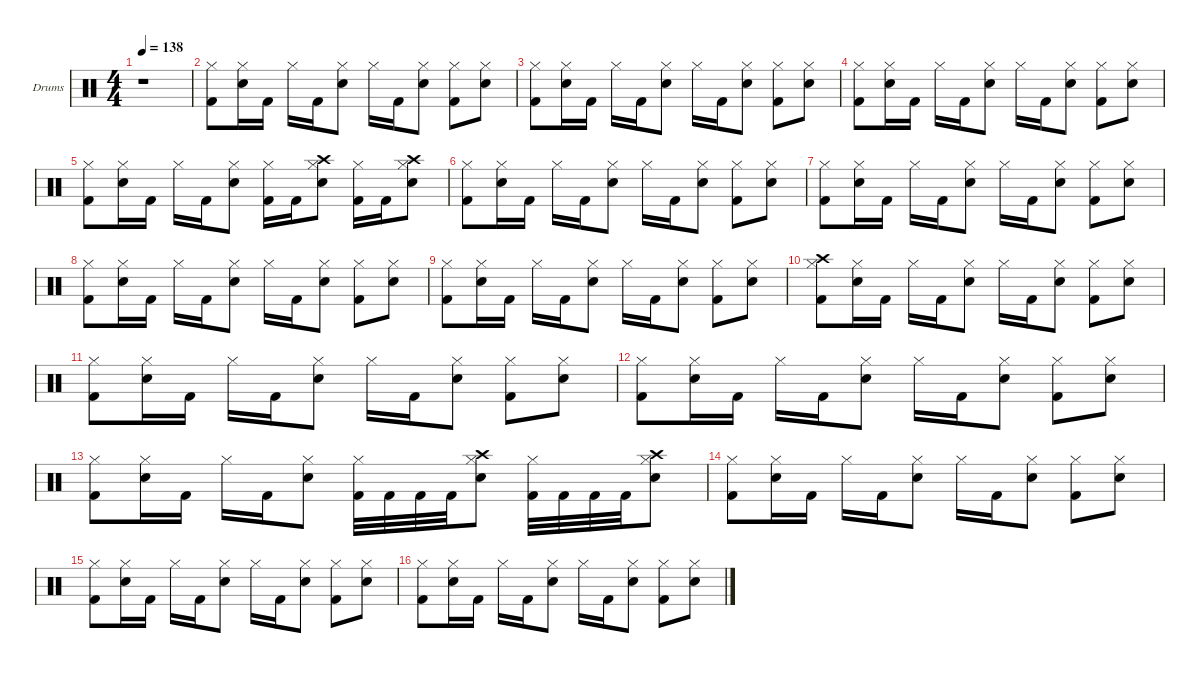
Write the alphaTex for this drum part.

\hideDynamics
\bracketExtendMode nobrackets
\firstSystemTrackNameOrientation horizontal
\otherSystemsTrackNameOrientation horizontal
\track ("Drumkit" "Drums") {instrument percussion}
\staff {score}
\articulation defaults
\ts (4 4)
\beaming (8 2 2 2 2)
\tempo 138
\clef neutral
\ks c
r.1{dy f beam Down} |
("Hi-Hat (closed)" "Kick (hit) 2").8{beam Down} ("Snare (hit) 2" "Hi-Hat (closed)").16{beam Down} "Kick (hit) 2".16{beam Down} "Hi-Hat (closed)".16{beam Down} "Kick (hit) 2".16{beam Down} ("Snare (hit) 2" "Hi-Hat (closed)").8{beam Down} "Hi-Hat (closed)".16{beam Down} "Kick (hit) 2".16{beam Down} ("Snare (hit) 2" "Hi-Hat (closed)").8{beam Down} ("Hi-Hat (closed)" "Kick (hit) 2").8{beam Down} ("Snare (hit) 2" "Hi-Hat (closed)").8{beam Down} |
("Hi-Hat (closed)" "Kick (hit) 2").8{beam Down} ("Snare (hit) 2" "Hi-Hat (closed)").16{beam Down} "Kick (hit) 2".16{beam Down} "Hi-Hat (closed)".16{beam Down} "Kick (hit) 2".16{beam Down} ("Snare (hit) 2" "Hi-Hat (closed)").8{beam Down} "Hi-Hat (closed)".16{beam Down} "Kick (hit) 2".16{beam Down} ("Snare (hit) 2" "Hi-Hat (closed)").8{beam Down} ("Hi-Hat (closed)" "Kick (hit) 2").8{beam Down} ("Snare (hit) 2" "Hi-Hat (closed)").8{beam Down} |
("Hi-Hat (closed)" "Kick (hit) 2").8{beam Down} ("Snare (hit) 2" "Hi-Hat (closed)").16{beam Down} "Kick (hit) 2".16{beam Down} "Hi-Hat (closed)".16{beam Down} "Kick (hit) 2".16{beam Down} ("Snare (hit) 2" "Hi-Hat (closed)").8{beam Down} "Hi-Hat (closed)".16{beam Down} "Kick (hit) 2".16{beam Down} ("Snare (hit) 2" "Hi-Hat (closed)").8{beam Down} ("Hi-Hat (closed)" "Kick (hit) 2").8{beam Down} ("Snare (hit) 2" "Hi-Hat (closed)").8{beam Down} |
("Hi-Hat (closed)" "Kick (hit) 2").8{beam Down} ("Snare (hit) 2" "Hi-Hat (closed)").16{beam Down} "Kick (hit) 2".16{beam Down} "Hi-Hat (closed)".16{beam Down} "Kick (hit) 2".16{beam Down} ("Snare (hit) 2" "Hi-Hat (closed)").8{beam Down} ("Hi-Hat (closed)" "Kick (hit) 2").16{beam Down} "Kick (hit) 2".16{beam Down} ("Crash high (hit)" "Snare (hit) 2" "Hi-Hat (closed)").8{beam Down} ("Hi-Hat (closed)" "Kick (hit) 2").16{beam Down} "Kick (hit) 2".16{beam Down} ("Crash high (hit)" "Snare (hit) 2" "Hi-Hat (closed)").8{beam Down} |
("Hi-Hat (closed)" "Kick (hit) 2").8{beam Down} ("Snare (hit) 2" "Hi-Hat (closed)").16{beam Down} "Kick (hit) 2".16{beam Down} "Hi-Hat (closed)".16{beam Down} "Kick (hit) 2".16{beam Down} ("Snare (hit) 2" "Hi-Hat (closed)").8{beam Down} "Hi-Hat (closed)".16{beam Down} "Kick (hit) 2".16{beam Down} ("Snare (hit) 2" "Hi-Hat (closed)").8{beam Down} ("Hi-Hat (closed)" "Kick (hit) 2").8{beam Down} ("Snare (hit) 2" "Hi-Hat (closed)").8{beam Down} |
("Hi-Hat (closed)" "Kick (hit) 2").8{beam Down} ("Snare (hit) 2" "Hi-Hat (closed)").16{beam Down} "Kick (hit) 2".16{beam Down} "Hi-Hat (closed)".16{beam Down} "Kick (hit) 2".16{beam Down} ("Snare (hit) 2" "Hi-Hat (closed)").8{beam Down} "Hi-Hat (closed)".16{beam Down} "Kick (hit) 2".16{beam Down} ("Snare (hit) 2" "Hi-Hat (closed)").8{beam Down} ("Hi-Hat (closed)" "Kick (hit) 2").8{beam Down} ("Snare (hit) 2" "Hi-Hat (closed)").8{beam Down} |
("Hi-Hat (closed)" "Kick (hit) 2").8{beam Down} ("Snare (hit) 2" "Hi-Hat (closed)").16{beam Down} "Kick (hit) 2".16{beam Down} "Hi-Hat (closed)".16{beam Down} "Kick (hit) 2".16{beam Down} ("Snare (hit) 2" "Hi-Hat (closed)").8{beam Down} "Hi-Hat (closed)".16{beam Down} "Kick (hit) 2".16{beam Down} ("Snare (hit) 2" "Hi-Hat (closed)").8{beam Down} ("Hi-Hat (closed)" "Kick (hit) 2").8{beam Down} ("Snare (hit) 2" "Hi-Hat (closed)").8{beam Down} |
("Hi-Hat (closed)" "Kick (hit) 2").8{beam Down} ("Snare (hit) 2" "Hi-Hat (closed)").16{beam Down} "Kick (hit) 2".16{beam Down} "Hi-Hat (closed)".16{beam Down} "Kick (hit) 2".16{beam Down} ("Snare (hit) 2" "Hi-Hat (closed)").8{beam Down} "Hi-Hat (closed)".16{beam Down} "Kick (hit) 2".16{beam Down} ("Snare (hit) 2" "Hi-Hat (closed)").8{beam Down} ("Hi-Hat (closed)" "Kick (hit) 2").8{beam Down} ("Snare (hit) 2" "Hi-Hat (closed)").8{beam Down} |
("Crash high (hit)" "Hi-Hat (closed)" "Kick (hit) 2").8{beam Down} ("Snare (hit) 2" "Hi-Hat (closed)").16{beam Down} "Kick (hit) 2".16{beam Down} "Hi-Hat (closed)".16{beam Down} "Kick (hit) 2".16{beam Down} ("Snare (hit) 2" "Hi-Hat (closed)").8{beam Down} "Hi-Hat (closed)".16{beam Down} "Kick (hit) 2".16{beam Down} ("Snare (hit) 2" "Hi-Hat (closed)").8{beam Down} ("Hi-Hat (closed)" "Kick (hit) 2").8{beam Down} ("Snare (hit) 2" "Hi-Hat (closed)").8{beam Down} |
("Hi-Hat (closed)" "Kick (hit) 2").8{beam Down} ("Snare (hit) 2" "Hi-Hat (closed)").16{beam Down} "Kick (hit) 2".16{beam Down} "Hi-Hat (closed)".16{beam Down} "Kick (hit) 2".16{beam Down} ("Snare (hit) 2" "Hi-Hat (closed)").8{beam Down} "Hi-Hat (closed)".16{beam Down} "Kick (hit) 2".16{beam Down} ("Snare (hit) 2" "Hi-Hat (closed)").8{beam Down} ("Hi-Hat (closed)" "Kick (hit) 2").8{beam Down} ("Snare (hit) 2" "Hi-Hat (closed)").8{beam Down} |
("Hi-Hat (closed)" "Kick (hit) 2").8{beam Down} ("Snare (hit) 2" "Hi-Hat (closed)").16{beam Down} "Kick (hit) 2".16{beam Down} "Hi-Hat (closed)".16{beam Down} "Kick (hit) 2".16{beam Down} ("Snare (hit) 2" "Hi-Hat (closed)").8{beam Down} "Hi-Hat (closed)".16{beam Down} "Kick (hit) 2".16{beam Down} ("Snare (hit) 2" "Hi-Hat (closed)").8{beam Down} ("Hi-Hat (closed)" "Kick (hit) 2").8{beam Down} ("Snare (hit) 2" "Hi-Hat (closed)").8{beam Down} |
("Hi-Hat (closed)" "Kick (hit) 2").8{beam Down} ("Snare (hit) 2" "Hi-Hat (closed)").16{beam Down} "Kick (hit) 2".16{beam Down} "Hi-Hat (closed)".16{beam Down} "Kick (hit) 2".16{beam Down} ("Snare (hit) 2" "Hi-Hat (closed)").8{beam Down} ("Hi-Hat (closed)" "Kick (hit) 2").32{beam Down} "Kick (hit) 2".32{beam Down} "Kick (hit) 2".32{beam Down} "Kick (hit) 2".32{beam Down} ("Crash high (hit)" "Snare (hit) 2" "Hi-Hat (closed)").8{beam Down} ("Hi-Hat (closed)" "Kick (hit) 2").32{beam Down} "Kick (hit) 2".32{beam Down} "Kick (hit) 2".32{beam Down} "Kick (hit) 2".32{beam Down} ("Crash high (hit)" "Snare (hit) 2" "Hi-Hat (closed)").8{beam Down} |
("Hi-Hat (closed)" "Kick (hit) 2").8{beam Down} ("Snare (hit) 2" "Hi-Hat (closed)").16{beam Down} "Kick (hit) 2".16{beam Down} "Hi-Hat (closed)".16{beam Down} "Kick (hit) 2".16{beam Down} ("Snare (hit) 2" "Hi-Hat (closed)").8{beam Down} "Hi-Hat (closed)".16{beam Down} "Kick (hit) 2".16{beam Down} ("Snare (hit) 2" "Hi-Hat (closed)").8{beam Down} ("Hi-Hat (closed)" "Kick (hit) 2").8{beam Down} ("Snare (hit) 2" "Hi-Hat (closed)").8{beam Down} |
("Hi-Hat (closed)" "Kick (hit) 2").8{beam Down} ("Snare (hit) 2" "Hi-Hat (closed)").16{beam Down} "Kick (hit) 2".16{beam Down} "Hi-Hat (closed)".16{beam Down} "Kick (hit) 2".16{beam Down} ("Snare (hit) 2" "Hi-Hat (closed)").8{beam Down} "Hi-Hat (closed)".16{beam Down} "Kick (hit) 2".16{beam Down} ("Snare (hit) 2" "Hi-Hat (closed)").8{beam Down} ("Hi-Hat (closed)" "Kick (hit) 2").8{beam Down} ("Snare (hit) 2" "Hi-Hat (closed)").8{beam Down} |
("Hi-Hat (closed)" "Kick (hit) 2").8{beam Down} ("Snare (hit) 2" "Hi-Hat (closed)").16{beam Down} "Kick (hit) 2".16{beam Down} "Hi-Hat (closed)".16{beam Down} "Kick (hit) 2".16{beam Down} ("Snare (hit) 2" "Hi-Hat (closed)").8{beam Down} "Hi-Hat (closed)".16{beam Down} "Kick (hit) 2".16{beam Down} ("Snare (hit) 2" "Hi-Hat (closed)").8{beam Down} ("Hi-Hat (closed)" "Kick (hit) 2").8{beam Down} ("Snare (hit) 2" "Hi-Hat (closed)").8{beam Down}
